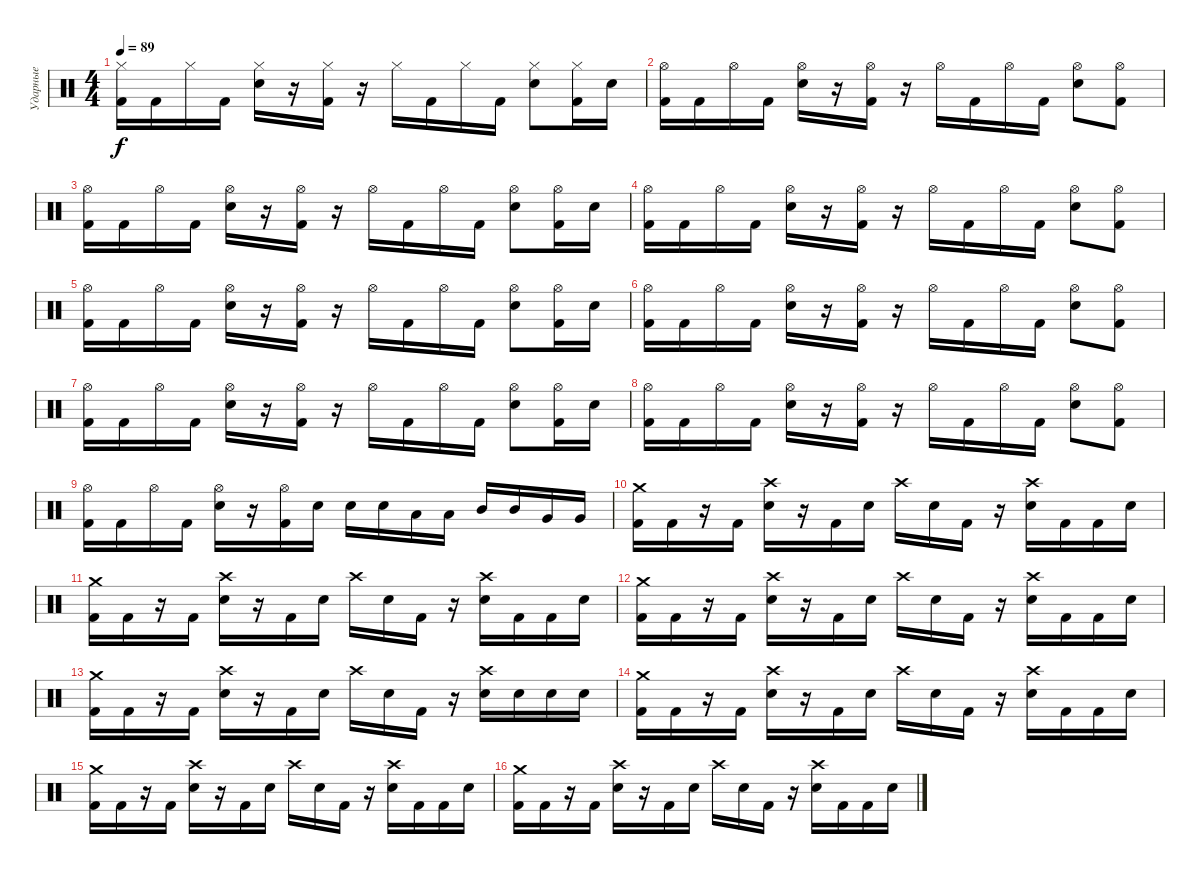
\track ("Ударные" "Ударные") {instrument percussion}
\staff {score}
\articulation defaults
\ts (4 4)
\tempo 89
\clef neutral
\ks c
("Hi-Hat (closed)" "Kick (hit) 2").16{dy f} "Kick (hit) 2".16 "Hi-Hat (closed)".16 "Kick (hit) 2".16 ("Hi-Hat (closed)" "Electric Snare (hit)").16 r.16 ("Hi-Hat (closed)" "Kick (hit) 2").16 r.16 "Hi-Hat (closed)".16 "Kick (hit) 2".16 "Hi-Hat (closed)".16 "Kick (hit) 2".16 ("Hi-Hat (closed)" "Electric Snare (hit)").8 ("Hi-Hat (closed)" "Kick (hit) 2").16 "Electric Snare (hit)".16 |
("Hi-Hat (open)" "Kick (hit) 2").16 "Kick (hit) 2".16 "Hi-Hat (open)".16 "Kick (hit) 2".16 ("Hi-Hat (open)" "Electric Snare (hit)").16 r.16 ("Hi-Hat (open)" "Kick (hit) 2").16 r.16 "Hi-Hat (open)".16 "Kick (hit) 2".16 "Hi-Hat (open)".16 "Kick (hit) 2".16 ("Hi-Hat (open)" "Electric Snare (hit)").8 ("Hi-Hat (open)" "Kick (hit) 2").8 |
("Hi-Hat (open)" "Kick (hit) 2").16 "Kick (hit) 2".16 "Hi-Hat (open)".16 "Kick (hit) 2".16 ("Hi-Hat (open)" "Electric Snare (hit)").16 r.16 ("Hi-Hat (open)" "Kick (hit) 2").16 r.16 "Hi-Hat (open)".16 "Kick (hit) 2".16 "Hi-Hat (open)".16 "Kick (hit) 2".16 ("Hi-Hat (open)" "Electric Snare (hit)").8 ("Hi-Hat (open)" "Kick (hit) 2").16 "Electric Snare (hit)".16 |
("Hi-Hat (open)" "Kick (hit) 2").16 "Kick (hit) 2".16 "Hi-Hat (open)".16 "Kick (hit) 2".16 ("Hi-Hat (open)" "Electric Snare (hit)").16 r.16 ("Hi-Hat (open)" "Kick (hit) 2").16 r.16 "Hi-Hat (open)".16 "Kick (hit) 2".16 "Hi-Hat (open)".16 "Kick (hit) 2".16 ("Hi-Hat (open)" "Electric Snare (hit)").8 ("Hi-Hat (open)" "Kick (hit) 2").8 |
("Hi-Hat (open)" "Kick (hit) 2").16 "Kick (hit) 2".16 "Hi-Hat (open)".16 "Kick (hit) 2".16 ("Hi-Hat (open)" "Electric Snare (hit)").16 r.16 ("Hi-Hat (open)" "Kick (hit) 2").16 r.16 "Hi-Hat (open)".16 "Kick (hit) 2".16 "Hi-Hat (open)".16 "Kick (hit) 2".16 ("Hi-Hat (open)" "Electric Snare (hit)").8 ("Hi-Hat (open)" "Kick (hit) 2").16 "Electric Snare (hit)".16 |
("Hi-Hat (open)" "Kick (hit) 2").16 "Kick (hit) 2".16 "Hi-Hat (open)".16 "Kick (hit) 2".16 ("Hi-Hat (open)" "Electric Snare (hit)").16 r.16 ("Hi-Hat (open)" "Kick (hit) 2").16 r.16 "Hi-Hat (open)".16 "Kick (hit) 2".16 "Hi-Hat (open)".16 "Kick (hit) 2".16 ("Hi-Hat (open)" "Electric Snare (hit)").8 ("Hi-Hat (open)" "Kick (hit) 2").8 |
("Hi-Hat (open)" "Kick (hit) 2").16 "Kick (hit) 2".16 "Hi-Hat (open)".16 "Kick (hit) 2".16 ("Hi-Hat (open)" "Electric Snare (hit)").16 r.16 ("Hi-Hat (open)" "Kick (hit) 2").16 r.16 "Hi-Hat (open)".16 "Kick (hit) 2".16 "Hi-Hat (open)".16 "Kick (hit) 2".16 ("Hi-Hat (open)" "Electric Snare (hit)").8 ("Hi-Hat (open)" "Kick (hit) 2").16 "Electric Snare (hit)".16 |
("Hi-Hat (open)" "Kick (hit) 2").16 "Kick (hit) 2".16 "Hi-Hat (open)".16 "Kick (hit) 2".16 ("Hi-Hat (open)" "Electric Snare (hit)").16 r.16 ("Hi-Hat (open)" "Kick (hit) 2").16 r.16 "Hi-Hat (open)".16 "Kick (hit) 2".16 "Hi-Hat (open)".16 "Kick (hit) 2".16 ("Hi-Hat (open)" "Electric Snare (hit)").8 ("Hi-Hat (open)" "Kick (hit) 2").8 |
("Hi-Hat (open)" "Kick (hit) 2").16 "Kick (hit) 2".16 "Hi-Hat (open)".16 "Kick (hit) 2".16 ("Hi-Hat (open)" "Electric Snare (hit)").16 r.16 ("Hi-Hat (open)" "Kick (hit) 2").16 "Electric Snare (hit)".16 "Electric Snare (hit)".16 "Electric Snare (hit)".16 "Low Tom (hit)".16 "Low Tom (hit)".16 "Mid Tom (hit)".16 "Mid Tom (hit)".16 "Very Low Tom (hit)".16 "Very Low Tom (hit)".16 |
("Crash medium (hit)" "Kick (hit) 2").16 "Kick (hit) 2".16 r.16 "Kick (hit) 2".16 ("Crash high (hit)" "Electric Snare (hit)").16 r.16 "Kick (hit) 2".16 "Electric Snare (hit)".16 "Crash high (hit)".16 "Electric Snare (hit)".16 "Kick (hit) 2".16 r.16 ("Crash high (hit)" "Electric Snare (hit)").16 "Kick (hit) 2".16 "Kick (hit) 2".16 "Electric Snare (hit)".16 |
("Crash medium (hit)" "Kick (hit) 2").16 "Kick (hit) 2".16 r.16 "Kick (hit) 2".16 ("Crash high (hit)" "Electric Snare (hit)").16 r.16 "Kick (hit) 2".16 "Electric Snare (hit)".16 "Crash high (hit)".16 "Electric Snare (hit)".16 "Kick (hit) 2".16 r.16 ("Crash high (hit)" "Electric Snare (hit)").16 "Kick (hit) 2".16 "Kick (hit) 2".16 "Electric Snare (hit)".16 |
("Crash medium (hit)" "Kick (hit) 2").16 "Kick (hit) 2".16 r.16 "Kick (hit) 2".16 ("Crash high (hit)" "Electric Snare (hit)").16 r.16 "Kick (hit) 2".16 "Electric Snare (hit)".16 "Crash high (hit)".16 "Electric Snare (hit)".16 "Kick (hit) 2".16 r.16 ("Crash high (hit)" "Electric Snare (hit)").16 "Kick (hit) 2".16 "Kick (hit) 2".16 "Electric Snare (hit)".16 |
("Crash medium (hit)" "Kick (hit) 2").16 "Kick (hit) 2".16 r.16 "Kick (hit) 2".16 ("Crash high (hit)" "Electric Snare (hit)").16 r.16 "Kick (hit) 2".16 "Electric Snare (hit)".16 "Crash high (hit)".16 "Electric Snare (hit)".16 "Kick (hit) 2".16 r.16 ("Crash high (hit)" "Electric Snare (hit)").16 "Electric Snare (hit)".16 "Electric Snare (hit)".16 "Electric Snare (hit)".16 |
("Crash medium (hit)" "Kick (hit) 2").16 "Kick (hit) 2".16 r.16 "Kick (hit) 2".16 ("Crash high (hit)" "Electric Snare (hit)").16 r.16 "Kick (hit) 2".16 "Electric Snare (hit)".16 "Crash high (hit)".16 "Electric Snare (hit)".16 "Kick (hit) 2".16 r.16 ("Crash high (hit)" "Electric Snare (hit)").16 "Kick (hit) 2".16 "Kick (hit) 2".16 "Electric Snare (hit)".16 |
("Crash medium (hit)" "Kick (hit) 2").16 "Kick (hit) 2".16 r.16 "Kick (hit) 2".16 ("Crash high (hit)" "Electric Snare (hit)").16 r.16 "Kick (hit) 2".16 "Electric Snare (hit)".16 "Crash high (hit)".16 "Electric Snare (hit)".16 "Kick (hit) 2".16 r.16 ("Crash high (hit)" "Electric Snare (hit)").16 "Kick (hit) 2".16 "Kick (hit) 2".16 "Electric Snare (hit)".16 |
("Crash medium (hit)" "Kick (hit) 2").16 "Kick (hit) 2".16 r.16 "Kick (hit) 2".16 ("Crash high (hit)" "Electric Snare (hit)").16 r.16 "Kick (hit) 2".16 "Electric Snare (hit)".16 "Crash high (hit)".16 "Electric Snare (hit)".16 "Kick (hit) 2".16 r.16 ("Crash high (hit)" "Electric Snare (hit)").16 "Kick (hit) 2".16 "Kick (hit) 2".16 "Electric Snare (hit)".16
